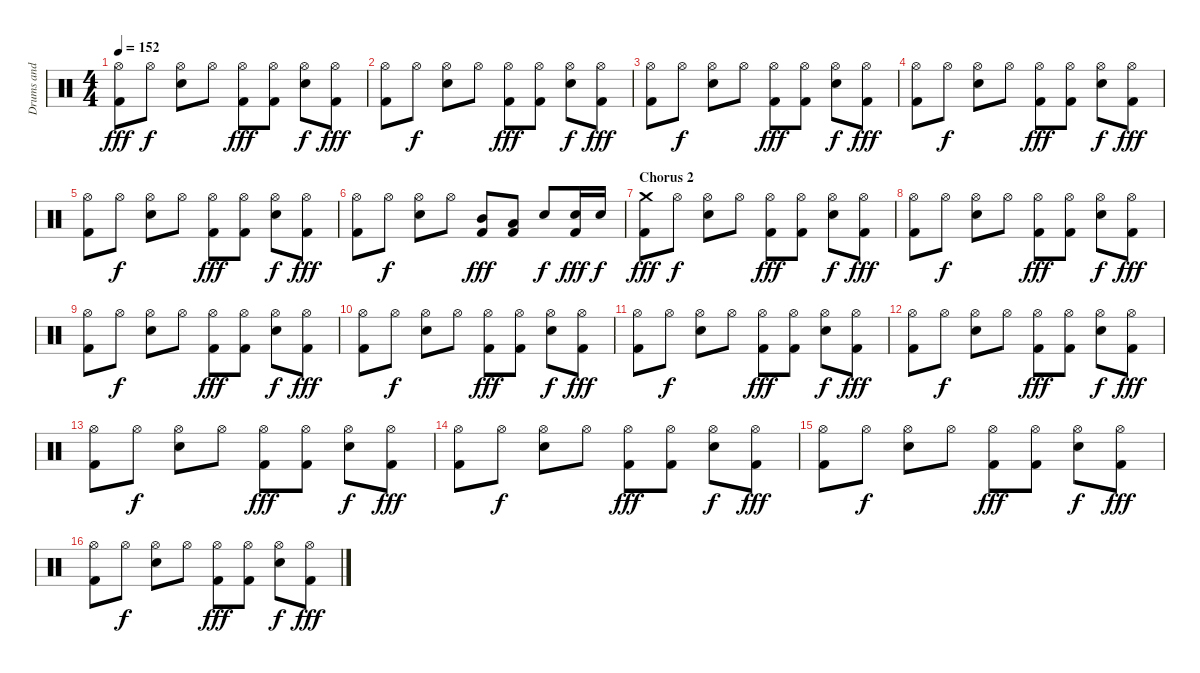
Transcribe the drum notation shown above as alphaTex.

\track ("Drums and Percussion" "Drums and ") {instrument percussion}
\staff {score}
\articulation defaults
\ts (4 4)
\tempo 152
\clef neutral
\ks c
("Hi-Hat (open)" "Kick (hit) 2").8{dy fff} "Hi-Hat (open)".8{dy f} ("Hi-Hat (open)" "Snare (hit) 2").8 "Hi-Hat (open)".8 ("Hi-Hat (open)" "Kick (hit) 2").8{dy fff} ("Hi-Hat (open)" "Kick (hit) 2").8 ("Hi-Hat (open)" "Snare (hit) 2").8{dy f} ("Hi-Hat (open)" "Kick (hit) 2").8{dy fff} |
("Hi-Hat (open)" "Kick (hit) 2").8 "Hi-Hat (open)".8{dy f} ("Hi-Hat (open)" "Snare (hit) 2").8 "Hi-Hat (open)".8 ("Hi-Hat (open)" "Kick (hit) 2").8{dy fff} ("Hi-Hat (open)" "Kick (hit) 2").8 ("Hi-Hat (open)" "Snare (hit) 2").8{dy f} ("Hi-Hat (open)" "Kick (hit) 2").8{dy fff} |
("Hi-Hat (open)" "Kick (hit) 2").8 "Hi-Hat (open)".8{dy f} ("Hi-Hat (open)" "Snare (hit) 2").8 "Hi-Hat (open)".8 ("Hi-Hat (open)" "Kick (hit) 2").8{dy fff} ("Hi-Hat (open)" "Kick (hit) 2").8 ("Hi-Hat (open)" "Snare (hit) 2").8{dy f} ("Hi-Hat (open)" "Kick (hit) 2").8{dy fff} |
("Hi-Hat (open)" "Kick (hit) 2").8 "Hi-Hat (open)".8{dy f} ("Hi-Hat (open)" "Snare (hit) 2").8 "Hi-Hat (open)".8 ("Hi-Hat (open)" "Kick (hit) 2").8{dy fff} ("Hi-Hat (open)" "Kick (hit) 2").8 ("Hi-Hat (open)" "Snare (hit) 2").8{dy f} ("Hi-Hat (open)" "Kick (hit) 2").8{dy fff} |
("Hi-Hat (open)" "Kick (hit) 2").8 "Hi-Hat (open)".8{dy f} ("Hi-Hat (open)" "Snare (hit) 2").8 "Hi-Hat (open)".8 ("Hi-Hat (open)" "Kick (hit) 2").8{dy fff} ("Hi-Hat (open)" "Kick (hit) 2").8 ("Hi-Hat (open)" "Snare (hit) 2").8{dy f} ("Hi-Hat (open)" "Kick (hit) 2").8{dy fff} |
("Hi-Hat (open)" "Kick (hit) 2").8 "Hi-Hat (open)".8{dy f} ("Hi-Hat (open)" "Snare (hit) 2").8 "Hi-Hat (open)".8 ("Mid Tom (hit)" "Kick (hit) 2").8{dy fff} ("Low Tom (hit)" "Kick (hit) 2").8 "Snare (hit) 2".8{dy f} ("Snare (hit) 2" "Kick (hit) 2").16{dy fff} "Snare (hit) 2".16{dy f} |
\section ("" "Chorus 2")
("Crash medium (hit)" "Kick (hit) 2").8{dy fff} "Hi-Hat (open)".8{dy f} ("Hi-Hat (open)" "Snare (hit) 2").8 "Hi-Hat (open)".8 ("Hi-Hat (open)" "Kick (hit) 2").8{dy fff} ("Hi-Hat (open)" "Kick (hit) 2").8 ("Hi-Hat (open)" "Snare (hit) 2").8{dy f} ("Hi-Hat (open)" "Kick (hit) 2").8{dy fff} |
("Hi-Hat (open)" "Kick (hit) 2").8 "Hi-Hat (open)".8{dy f} ("Hi-Hat (open)" "Snare (hit) 2").8 "Hi-Hat (open)".8 ("Hi-Hat (open)" "Kick (hit) 2").8{dy fff} ("Hi-Hat (open)" "Kick (hit) 2").8 ("Hi-Hat (open)" "Snare (hit) 2").8{dy f} ("Hi-Hat (open)" "Kick (hit) 2").8{dy fff} |
("Hi-Hat (open)" "Kick (hit) 2").8 "Hi-Hat (open)".8{dy f} ("Hi-Hat (open)" "Snare (hit) 2").8 "Hi-Hat (open)".8 ("Hi-Hat (open)" "Kick (hit) 2").8{dy fff} ("Hi-Hat (open)" "Kick (hit) 2").8 ("Hi-Hat (open)" "Snare (hit) 2").8{dy f} ("Hi-Hat (open)" "Kick (hit) 2").8{dy fff} |
("Hi-Hat (open)" "Kick (hit) 2").8 "Hi-Hat (open)".8{dy f} ("Hi-Hat (open)" "Snare (hit) 2").8 "Hi-Hat (open)".8 ("Hi-Hat (open)" "Kick (hit) 2").8{dy fff} ("Hi-Hat (open)" "Kick (hit) 2").8 ("Hi-Hat (open)" "Snare (hit) 2").8{dy f} ("Hi-Hat (open)" "Kick (hit) 2").8{dy fff} |
("Hi-Hat (open)" "Kick (hit) 2").8 "Hi-Hat (open)".8{dy f} ("Hi-Hat (open)" "Snare (hit) 2").8 "Hi-Hat (open)".8 ("Hi-Hat (open)" "Kick (hit) 2").8{dy fff} ("Hi-Hat (open)" "Kick (hit) 2").8 ("Hi-Hat (open)" "Snare (hit) 2").8{dy f} ("Hi-Hat (open)" "Kick (hit) 2").8{dy fff} |
("Hi-Hat (open)" "Kick (hit) 2").8 "Hi-Hat (open)".8{dy f} ("Hi-Hat (open)" "Snare (hit) 2").8 "Hi-Hat (open)".8 ("Hi-Hat (open)" "Kick (hit) 2").8{dy fff} ("Hi-Hat (open)" "Kick (hit) 2").8 ("Hi-Hat (open)" "Snare (hit) 2").8{dy f} ("Hi-Hat (open)" "Kick (hit) 2").8{dy fff} |
("Hi-Hat (open)" "Kick (hit) 2").8 "Hi-Hat (open)".8{dy f} ("Hi-Hat (open)" "Snare (hit) 2").8 "Hi-Hat (open)".8 ("Hi-Hat (open)" "Kick (hit) 2").8{dy fff} ("Hi-Hat (open)" "Kick (hit) 2").8 ("Hi-Hat (open)" "Snare (hit) 2").8{dy f} ("Hi-Hat (open)" "Kick (hit) 2").8{dy fff} |
("Hi-Hat (open)" "Kick (hit) 2").8 "Hi-Hat (open)".8{dy f} ("Hi-Hat (open)" "Snare (hit) 2").8 "Hi-Hat (open)".8 ("Hi-Hat (open)" "Kick (hit) 2").8{dy fff} ("Hi-Hat (open)" "Kick (hit) 2").8 ("Hi-Hat (open)" "Snare (hit) 2").8{dy f} ("Hi-Hat (open)" "Kick (hit) 2").8{dy fff} |
("Hi-Hat (open)" "Kick (hit) 2").8 "Hi-Hat (open)".8{dy f} ("Hi-Hat (open)" "Snare (hit) 2").8 "Hi-Hat (open)".8 ("Hi-Hat (open)" "Kick (hit) 2").8{dy fff} ("Hi-Hat (open)" "Kick (hit) 2").8 ("Hi-Hat (open)" "Snare (hit) 2").8{dy f} ("Hi-Hat (open)" "Kick (hit) 2").8{dy fff} |
("Hi-Hat (open)" "Kick (hit) 2").8 "Hi-Hat (open)".8{dy f} ("Hi-Hat (open)" "Snare (hit) 2").8 "Hi-Hat (open)".8 ("Hi-Hat (open)" "Kick (hit) 2").8{dy fff} ("Hi-Hat (open)" "Kick (hit) 2").8 ("Hi-Hat (open)" "Snare (hit) 2").8{dy f} ("Hi-Hat (open)" "Kick (hit) 2").8{dy fff}
